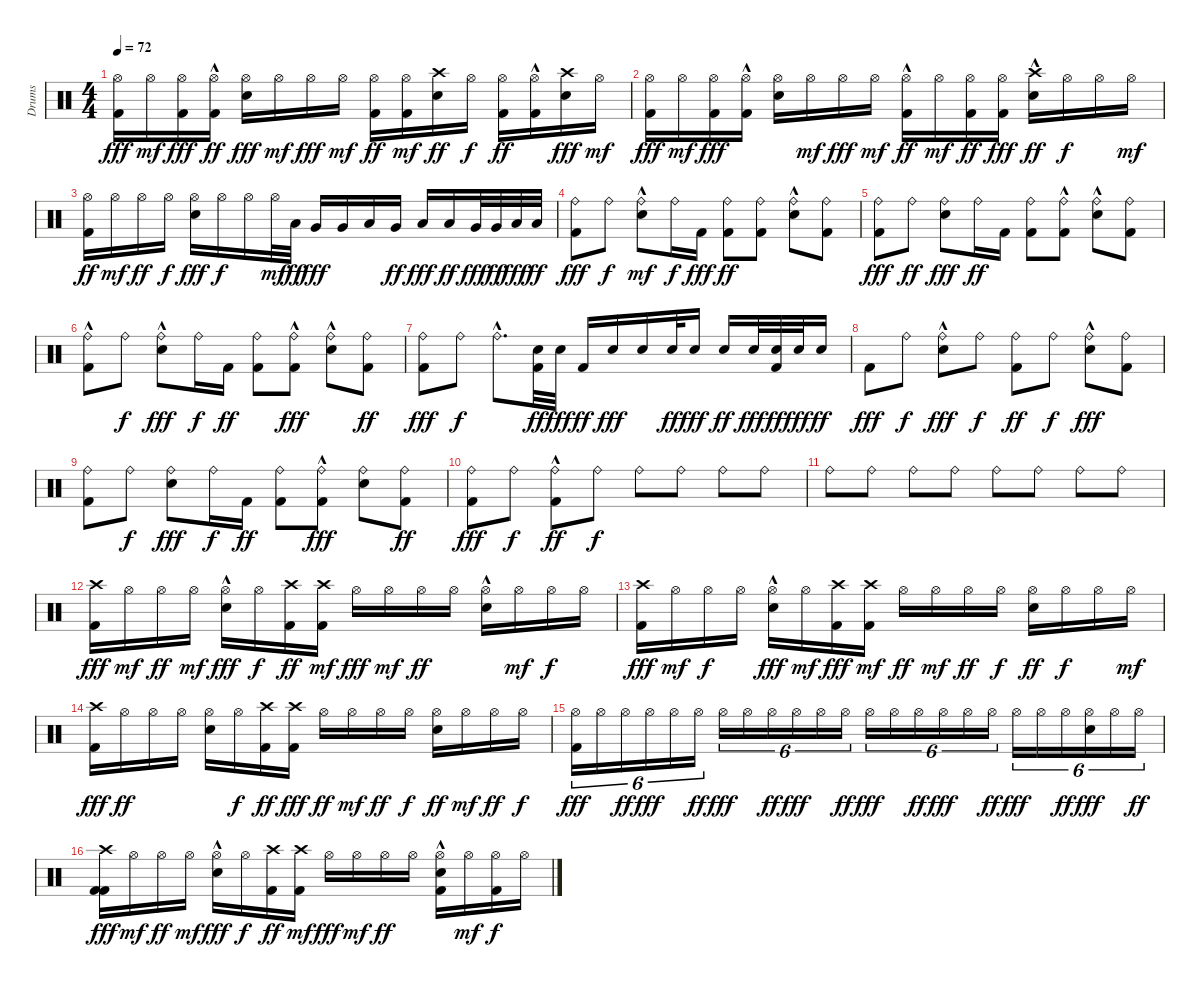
\track ("Drums" "Drums") {instrument percussion}
\staff {score}
\articulation defaults
\ts (4 4)
\tempo 72
\clef neutral
\ks c
("Kick (hit) 2" "Hi-Hat (open)").16{dy fff} "Hi-Hat (open)".16{dy mf} ("Kick (hit) 2" "Hi-Hat (open)").16{dy fff} ("Kick (hit) 2"{hac} "Hi-Hat (open)").16{dy ff} ("Snare (hit) 2" "Hi-Hat (open)").16{dy fff} "Hi-Hat (open)".16{dy mf} "Hi-Hat (open)".16{dy fff} "Hi-Hat (open)".16{dy mf} ("Kick (hit) 2" "Hi-Hat (open)").16{dy ff} ("Kick (hit) 2" "Hi-Hat (open)").16{dy mf} ("Snare (hit) 2" "Crash high (hit)").16{dy ff} "Hi-Hat (open)".16{dy f} ("Kick (hit) 2" "Hi-Hat (open)").16{dy ff} ("Kick (hit) 2"{hac} "Hi-Hat (open)").16 ("Snare (hit) 2" "Crash high (hit)").16{dy fff} "Hi-Hat (open)".16{dy mf} |
("Kick (hit) 2" "Hi-Hat (open)").16{dy fff} "Hi-Hat (open)".16{dy mf} ("Kick (hit) 2" "Hi-Hat (open)").16{dy fff} ("Kick (hit) 2"{hac} "Hi-Hat (open)").16 ("Snare (hit) 2" "Hi-Hat (open)").16 "Hi-Hat (open)".16{dy mf} "Hi-Hat (open)".16{dy fff} "Hi-Hat (open)".16{dy mf} ("Kick (hit) 2"{hac} "Hi-Hat (open)").16{dy ff} "Hi-Hat (open)".16{dy mf} ("Kick (hit) 2" "Hi-Hat (open)").16{dy ff} ("Kick (hit) 2" "Hi-Hat (open)").16{dy fff} ("Snare (hit) 2"{hac} "Crash high (hit)").16{dy ff} "Hi-Hat (open)".16{dy f} "Hi-Hat (open)".16 "Hi-Hat (open)".16{dy mf} |
("Kick (hit) 2" "Hi-Hat (open)").16{dy ff} "Hi-Hat (open)".16{dy mf} "Hi-Hat (open)".16{dy ff} "Hi-Hat (open)".16{dy f} ("Hi-Hat (open)" "Snare (hit) 2").16{dy fff} "Hi-Hat (open)".16{dy f} "Hi-Hat (open)".16 "Hi-Hat (open)".32{dy mf} "Low Floor Tom (hit)".32{dy ff} "Very Low Tom (hit)".16{dy fff} "Very Low Tom (hit)".16 "Low Floor Tom (hit)".16 "Very Low Tom (hit)".16{dy ff} "Low Tom (hit)".16{dy fff} "Low Tom (hit)".16{dy ff} "Very Low Tom (hit)".32{dy fff} "Very Low Tom (hit)".32{dy ff} "Low Floor Tom (hit)".32{dy fff} "Low Floor Tom (hit)".32{dy ff} |
("Ride (bell)" "Kick (hit) 2").8{dy fff} "Ride (bell)".8{dy f} ("Snare (hit) 2"{hac} "Ride (bell)").8{dy mf} "Ride (bell)".16{dy f} "Kick (hit) 2".16{dy fff} ("Ride (bell)" "Kick (hit) 2").8{dy ff} ("Kick (hit) 2" "Ride (bell)").8 ("Snare (hit) 2"{hac} "Ride (bell)").8 ("Kick (hit) 2" "Ride (bell)").8 |
("Ride (bell)" "Kick (hit) 2").8{dy fff} "Ride (bell)".8{dy ff} ("Snare (hit) 2" "Ride (bell)").8{dy fff} "Ride (bell)".16{dy ff} "Kick (hit) 2".16 ("Ride (bell)" "Kick (hit) 2").8 ("Kick (hit) 2"{hac} "Ride (bell)").8 ("Snare (hit) 2"{hac} "Ride (bell)").8 ("Kick (hit) 2" "Ride (bell)").8 |
("Ride (bell)" "Kick (hit) 2"{hac}).8 "Ride (bell)".8{dy f} ("Snare (hit) 2"{hac} "Ride (bell)").8{dy fff} "Ride (bell)".16{dy f} "Kick (hit) 2".16{dy ff} ("Kick (hit) 2" "Ride (bell)").8 ("Kick (hit) 2"{hac} "Ride (bell)").8{dy fff} ("Snare (hit) 2"{hac} "Ride (bell)").8 ("Kick (hit) 2" "Ride (bell)").8{dy ff} |
("Ride (bell)" "Kick (hit) 2").8{dy fff} "Ride (bell)".8{dy f} "Ride (bell)"{hac}.8{d} ("Kick (hit) 2" "Snare (hit) 2").32{dy ff} "Snare (hit) 2".32{dy fff} "Kick (hit) 2".16{dy ff} "Snare (hit) 2".16{dy fff} "Snare (hit) 2".16 "Snare (hit) 2".32{dy ff} "Snare (hit) 2".16{dy fff} "Snare (hit) 2".16{dy ff} "Snare (hit) 2".32{dy fff} ("Kick (hit) 2" "Snare (hit) 2").32{dy ff} "Snare (hit) 2".32{dy fff} "Snare (hit) 2".16{dy ff} |
"Kick (hit) 2".8{dy fff} "Ride (bell)".8{dy f} ("Snare (hit) 2"{hac} "Ride (bell)").8{dy fff} "Ride (bell)".8{dy f} ("Ride (bell)" "Kick (hit) 2").8{dy ff} "Ride (bell)".8{dy f} ("Snare (hit) 2"{hac} "Ride (bell)").8{dy fff} ("Kick (hit) 2" "Ride (bell)").8 |
("Kick (hit) 2" "Ride (bell)").8 "Ride (bell)".8{dy f} ("Snare (hit) 2" "Ride (bell)").8{dy fff} "Ride (bell)".16{dy f} "Kick (hit) 2".16{dy ff} ("Kick (hit) 2" "Ride (bell)").8 ("Kick (hit) 2"{hac} "Ride (bell)").8{dy fff} ("Snare (hit) 2" "Ride (bell)").8 ("Kick (hit) 2" "Ride (bell)").8{dy ff} |
("Kick (hit) 2" "Ride (bell)").8{dy fff} "Ride (bell)".8{dy f} ("Ride (bell)" "Kick (hit) 2"{hac}).8{dy ff} "Ride (bell)".8{dy f} "Ride (bell)".8 "Ride (bell)".8 "Ride (bell)".8 "Ride (bell)".8 |
"Ride (bell)".8 "Ride (bell)".8 "Ride (bell)".8 "Ride (bell)".8 "Ride (bell)".8 "Ride (bell)".8 "Ride (bell)".8 "Ride (bell)".8 |
("Kick (hit) 2" "Crash high (hit)").16{dy fff} "Hi-Hat (open)".16{dy mf} "Hi-Hat (open)".16{dy ff} "Hi-Hat (open)".16{dy mf} ("Snare (hit) 2"{hac} "Hi-Hat (open)").16{dy fff} "Hi-Hat (open)".16{dy f} ("Kick (hit) 2" "Crash high (hit)").16{dy ff} ("Kick (hit) 2" "Crash high (hit)").16{dy mf} "Hi-Hat (open)".16{dy fff} "Hi-Hat (open)".16{dy mf} "Hi-Hat (open)".16{dy ff} "Hi-Hat (open)".16 ("Snare (hit) 2"{hac} "Hi-Hat (open)").16 "Hi-Hat (open)".16{dy mf} "Hi-Hat (open)".16{dy f} "Hi-Hat (open)".16 |
("Kick (hit) 2" "Crash high (hit)").16{dy fff} "Hi-Hat (open)".16{dy mf} "Hi-Hat (open)".16{dy f} "Hi-Hat (open)".16 ("Snare (hit) 2"{hac} "Hi-Hat (open)").16{dy fff} "Hi-Hat (open)".16{dy mf} ("Kick (hit) 2" "Crash high (hit)").16{dy fff} ("Kick (hit) 2" "Crash high (hit)").16{dy mf} "Hi-Hat (open)".16{dy ff} "Hi-Hat (open)".16{dy mf} "Hi-Hat (open)".16{dy ff} "Hi-Hat (open)".16{dy f} ("Snare (hit) 2" "Hi-Hat (open)").16{dy ff} "Hi-Hat (open)".16{dy f} "Hi-Hat (open)".16 "Hi-Hat (open)".16{dy mf} |
("Crash high (hit)" "Kick (hit) 2").16{dy fff} "Hi-Hat (open)".16{dy ff} "Hi-Hat (open)".16 "Hi-Hat (open)".16 ("Snare (hit) 2" "Hi-Hat (open)").16 "Hi-Hat (open)".16{dy f} ("Kick (hit) 2" "Crash high (hit)").16{dy ff} ("Crash high (hit)" "Kick (hit) 2").16{dy fff} "Hi-Hat (open)".16{dy ff} "Hi-Hat (open)".16{dy mf} "Hi-Hat (open)".16{dy ff} "Hi-Hat (open)".16{dy f} ("Snare (hit) 2" "Hi-Hat (open)").16{dy ff} "Hi-Hat (open)".16{dy mf} "Hi-Hat (open)".16{dy ff} "Hi-Hat (open)".16{dy f} |
("Kick (hit) 2" "Hi-Hat (open)").16{tu (6 4) dy fff} "Hi-Hat (open)".16{tu (6 4)} "Hi-Hat (open)".16{tu (6 4) dy ff} "Hi-Hat (open)".16{tu (6 4) dy fff} "Hi-Hat (open)".16{tu (6 4)} "Hi-Hat (open)".16{tu (6 4) dy ff} "Hi-Hat (open)".16{tu (6 4) dy fff} "Hi-Hat (open)".16{tu (6 4)} "Hi-Hat (open)".16{tu (6 4) dy ff} "Hi-Hat (open)".16{tu (6 4) dy fff} "Hi-Hat (open)".16{tu (6 4)} "Hi-Hat (open)".16{tu (6 4) dy ff} "Hi-Hat (open)".16{tu (6 4) dy fff} "Hi-Hat (open)".16{tu (6 4)} "Hi-Hat (open)".16{tu (6 4) dy ff} "Hi-Hat (open)".16{tu (6 4) dy fff} "Hi-Hat (open)".16{tu (6 4)} "Hi-Hat (open)".16{tu (6 4) dy ff} "Hi-Hat (open)".16{tu (6 4) dy fff} "Hi-Hat (open)".16{tu (6 4)} "Hi-Hat (open)".16{tu (6 4) dy ff} ("Hi-Hat (open)" "Snare (hit) 2").16{tu (6 4) dy fff} "Hi-Hat (open)".16{tu (6 4)} "Hi-Hat (open)".16{tu (6 4) dy ff} |
("Kick (hit) 2" "Kick (hit) 2" "Crash high (hit)").16{dy fff} "Hi-Hat (open)".16{dy mf} "Hi-Hat (open)".16{dy ff} "Hi-Hat (open)".16{dy mf} ("Snare (hit) 2"{hac} "Hi-Hat (open)").16{dy fff} "Hi-Hat (open)".16{dy f} ("Kick (hit) 2" "Crash high (hit)").16{dy ff} ("Kick (hit) 2" "Crash high (hit)").16{dy mf} "Hi-Hat (open)".16{dy fff} "Hi-Hat (open)".16{dy mf} "Hi-Hat (open)".16{dy ff} "Hi-Hat (open)".16 ("Kick (hit) 2" "Snare (hit) 2"{hac} "Hi-Hat (open)").16 "Hi-Hat (open)".16{dy mf} ("Hi-Hat (open)" "Kick (hit) 2").16{dy f} "Hi-Hat (open)".16
